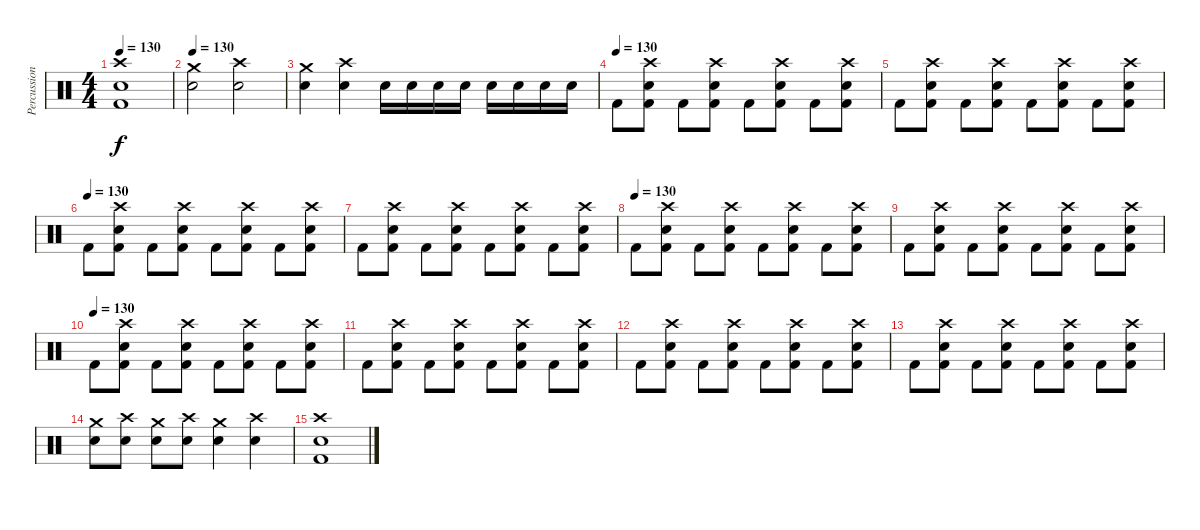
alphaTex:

\track ("Percussion" "Percussion") {instrument percussion}
\staff {score}
\articulation defaults
\ts (4 4)
\tempo 130
\clef neutral
\ks c
("Crash high (hit)" "Electric Snare (hit)" "Kick (hit) 2").1{dy f} |
\tempo 130
("Crash medium (hit)" "Electric Snare (hit)").2 ("Crash high (hit)" "Electric Snare (hit)").2 |
("Crash medium (hit)" "Electric Snare (hit)").4 ("Crash high (hit)" "Electric Snare (hit)").4 "Electric Snare (hit)".16 "Electric Snare (hit)".16 "Electric Snare (hit)".16 "Electric Snare (hit)".16 "Electric Snare (hit)".16 "Electric Snare (hit)".16 "Electric Snare (hit)".16 "Electric Snare (hit)".16 |
\tempo (130)
"Kick (hit) 2".8 ("Crash high (hit)" "Electric Snare (hit)" "Kick (hit) 2").8 "Kick (hit) 2".8 ("Crash high (hit)" "Electric Snare (hit)" "Kick (hit) 2").8 "Kick (hit) 2".8 ("Crash high (hit)" "Electric Snare (hit)" "Kick (hit) 2").8 "Kick (hit) 2".8 ("Crash high (hit)" "Electric Snare (hit)" "Kick (hit) 2").8 |
"Kick (hit) 2".8 ("Crash high (hit)" "Electric Snare (hit)" "Kick (hit) 2").8 "Kick (hit) 2".8 ("Crash high (hit)" "Electric Snare (hit)" "Kick (hit) 2").8 "Kick (hit) 2".8 ("Crash high (hit)" "Electric Snare (hit)" "Kick (hit) 2").8 "Kick (hit) 2".8 ("Crash high (hit)" "Electric Snare (hit)" "Kick (hit) 2").8 |
\tempo (130)
"Kick (hit) 2".8 ("Crash high (hit)" "Electric Snare (hit)" "Kick (hit) 2").8 "Kick (hit) 2".8 ("Crash high (hit)" "Electric Snare (hit)" "Kick (hit) 2").8 "Kick (hit) 2".8 ("Crash high (hit)" "Electric Snare (hit)" "Kick (hit) 2").8 "Kick (hit) 2".8 ("Crash high (hit)" "Electric Snare (hit)" "Kick (hit) 2").8 |
"Kick (hit) 2".8 ("Crash high (hit)" "Electric Snare (hit)" "Kick (hit) 2").8 "Kick (hit) 2".8 ("Crash high (hit)" "Electric Snare (hit)" "Kick (hit) 2").8 "Kick (hit) 2".8 ("Crash high (hit)" "Electric Snare (hit)" "Kick (hit) 2").8 "Kick (hit) 2".8 ("Crash high (hit)" "Electric Snare (hit)" "Kick (hit) 2").8 |
\tempo (130)
"Kick (hit) 2".8 ("Crash high (hit)" "Electric Snare (hit)" "Kick (hit) 2").8 "Kick (hit) 2".8 ("Crash high (hit)" "Electric Snare (hit)" "Kick (hit) 2").8 "Kick (hit) 2".8 ("Crash high (hit)" "Electric Snare (hit)" "Kick (hit) 2").8 "Kick (hit) 2".8 ("Crash high (hit)" "Electric Snare (hit)" "Kick (hit) 2").8 |
"Kick (hit) 2".8 ("Crash high (hit)" "Electric Snare (hit)" "Kick (hit) 2").8 "Kick (hit) 2".8 ("Crash high (hit)" "Electric Snare (hit)" "Kick (hit) 2").8 "Kick (hit) 2".8 ("Crash high (hit)" "Electric Snare (hit)" "Kick (hit) 2").8 "Kick (hit) 2".8 ("Crash high (hit)" "Electric Snare (hit)" "Kick (hit) 2").8 |
\tempo (130)
"Kick (hit) 2".8 ("Crash high (hit)" "Electric Snare (hit)" "Kick (hit) 2").8 "Kick (hit) 2".8 ("Crash high (hit)" "Electric Snare (hit)" "Kick (hit) 2").8 "Kick (hit) 2".8 ("Crash high (hit)" "Electric Snare (hit)" "Kick (hit) 2").8 "Kick (hit) 2".8 ("Crash high (hit)" "Electric Snare (hit)" "Kick (hit) 2").8 |
"Kick (hit) 2".8 ("Crash high (hit)" "Electric Snare (hit)" "Kick (hit) 2").8 "Kick (hit) 2".8 ("Crash high (hit)" "Electric Snare (hit)" "Kick (hit) 2").8 "Kick (hit) 2".8 ("Crash high (hit)" "Electric Snare (hit)" "Kick (hit) 2").8 "Kick (hit) 2".8 ("Crash high (hit)" "Electric Snare (hit)" "Kick (hit) 2").8 |
"Kick (hit) 2".8 ("Crash high (hit)" "Electric Snare (hit)" "Kick (hit) 2").8 "Kick (hit) 2".8 ("Crash high (hit)" "Electric Snare (hit)" "Kick (hit) 2").8 "Kick (hit) 2".8 ("Crash high (hit)" "Electric Snare (hit)" "Kick (hit) 2").8 "Kick (hit) 2".8 ("Crash high (hit)" "Electric Snare (hit)" "Kick (hit) 2").8 |
"Kick (hit) 2".8 ("Crash high (hit)" "Electric Snare (hit)" "Kick (hit) 2").8 "Kick (hit) 2".8 ("Crash high (hit)" "Electric Snare (hit)" "Kick (hit) 2").8 "Kick (hit) 2".8 ("Crash high (hit)" "Electric Snare (hit)" "Kick (hit) 2").8 "Kick (hit) 2".8 ("Crash high (hit)" "Electric Snare (hit)" "Kick (hit) 2").8 |
("Crash medium (hit)" "Electric Snare (hit)").8 ("Crash high (hit)" "Electric Snare (hit)").8 ("Crash medium (hit)" "Electric Snare (hit)").8 ("Crash high (hit)" "Electric Snare (hit)").8 ("Crash medium (hit)" "Electric Snare (hit)").4 ("Crash high (hit)" "Electric Snare (hit)").4 |
("Crash high (hit)" "Electric Snare (hit)" "Kick (hit) 2").1
